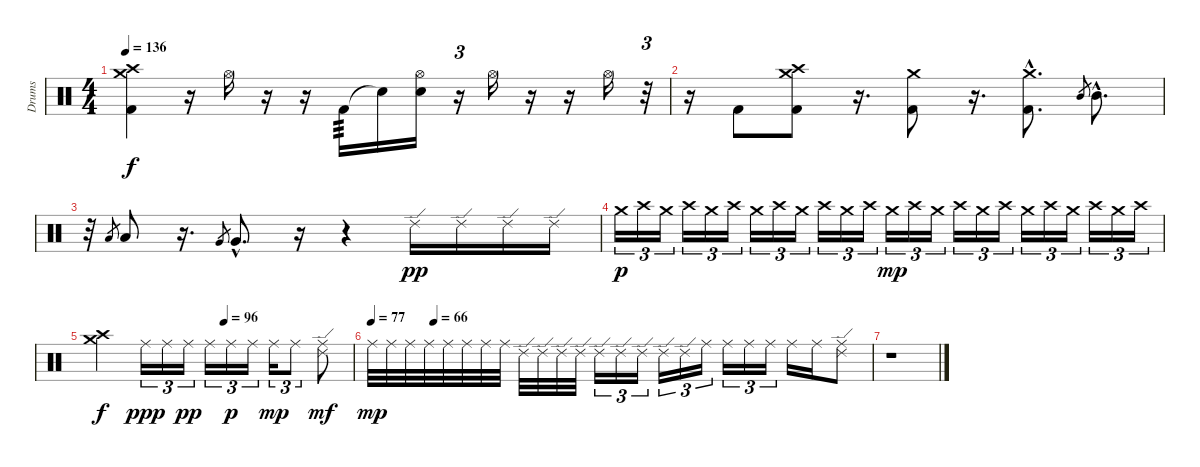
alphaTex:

\track ("Drums" "Drums") {instrument percussion}
\staff {score}
\articulation defaults
\ts (4 4)
\tempo 136
\clef neutral
\ks c
("Crash medium (hit)" "Crash high (hit)" "Kick (hit) 2").4{dy f} r.16 "Hi-Hat (open)".16 r.16 r.16 "Kick (hit) 2".16{tp 3} "Snare (hit)"{t}.16 ("Hi-Hat (open)" "Electric Snare (hit)").16 r.16{tu (3 2)} "Hi-Hat (open)".16 r.16 r.16 "Hi-Hat (open)".16 r.32{tu (3 2)} |
r.16 "Kick (hit) 2".8 ("Crash medium (hit)" "Crash high (hit)" "Kick (hit) 2").8 r.16{d} ("Crash medium (hit)" "Kick (hit) 2").8 r.16{d} ("Crash medium (hit)"{hac} "Kick (hit) 2"{hac}).8{d} "Mid Tom (hit)".8{gr} "Mid Tom (hit)"{hac}.8{d} |
r.32 "Low Tom (hit)".8{gr} "Low Tom (hit)".8 r.16{d} "Very Low Tom (hit)".8{gr} "Very Low Tom (hit)"{hac}.8{d} r.16 r.4 "Ride (edge) 2".16{dy pp} "Ride (edge) 2".16 "Ride (edge) 2".16 "Ride (edge) 2".16 |
"Crash medium (hit)".16{tu (3 2) dy p} "Crash high (hit)".16{tu (3 2)} "Crash medium (hit)".16{tu (3 2)} "Crash high (hit)".16{tu (3 2)} "Crash medium (hit)".16{tu (3 2)} "Crash high (hit)".16{tu (3 2)} "Crash medium (hit)".16{tu (3 2)} "Crash high (hit)".16{tu (3 2)} "Crash medium (hit)".16{tu (3 2)} "Crash high (hit)".16{tu (3 2)} "Crash medium (hit)".16{tu (3 2)} "Crash high (hit)".16{tu (3 2)} "Crash medium (hit)".16{tu (3 2) dy mp} "Crash high (hit)".16{tu (3 2)} "Crash medium (hit)".16{tu (3 2)} "Crash high (hit)".16{tu (3 2)} "Crash medium (hit)".16{tu (3 2)} "Crash high (hit)".16{tu (3 2)} "Crash medium (hit)".16{tu (3 2)} "Crash high (hit)".16{tu (3 2)} "Crash medium (hit)".16{tu (3 2)} "Crash high (hit)".16{tu (3 2)} "Crash medium (hit)".16{tu (3 2)} "Crash high (hit)".16{tu (3 2)} |
\tempo (96 0.5)
("Crash medium (hit)" "Crash high (hit)").2{dy f} "Ride (middle)".16{tu (3 2) dy ppp} "Ride (middle)".16{tu (3 2)} "Ride (middle)".16{tu (3 2) dy pp} "Ride (middle)".16{tu (3 2)} "Ride (middle)".16{tu (3 2) dy p} "Ride (middle)".16{tu (3 2)} "Ride (middle)".16{tu (3 2) dy mp} "Ride (middle)".8{tu (3 2)} ("Ride (edge) 2" "Ride (middle)").8{bd 120 dy mf} |
\tempo 77
\tempo (66 0.125)
"Ride (middle)".32{dy mp} "Ride (middle)".32 "Ride (middle)".32 "Ride (middle)".32 "Ride (middle)".32 "Ride (middle)".32 "Ride (middle)".32 "Ride (middle)".32 "Ride (edge) 2".32 "Ride (edge) 2".32 "Ride (edge) 2".32 "Ride (edge) 2".32 "Ride (edge) 2".16{tu (3 2)} "Ride (edge) 2".16{tu (3 2)} "Ride (edge) 2".16{tu (3 2)} "Ride (edge) 2".16{tu (3 2)} "Ride (edge) 2".16{tu (3 2)} "Ride (middle)".16{tu (3 2)} "Ride (middle)".16{tu (3 2)} "Ride (middle)".16{tu (3 2)} "Ride (middle)".16{tu (3 2)} "Ride (middle)".16 "Ride (middle)".16 ("Ride (edge) 2" "Ride (middle)").8{bd 480} |
r.1
